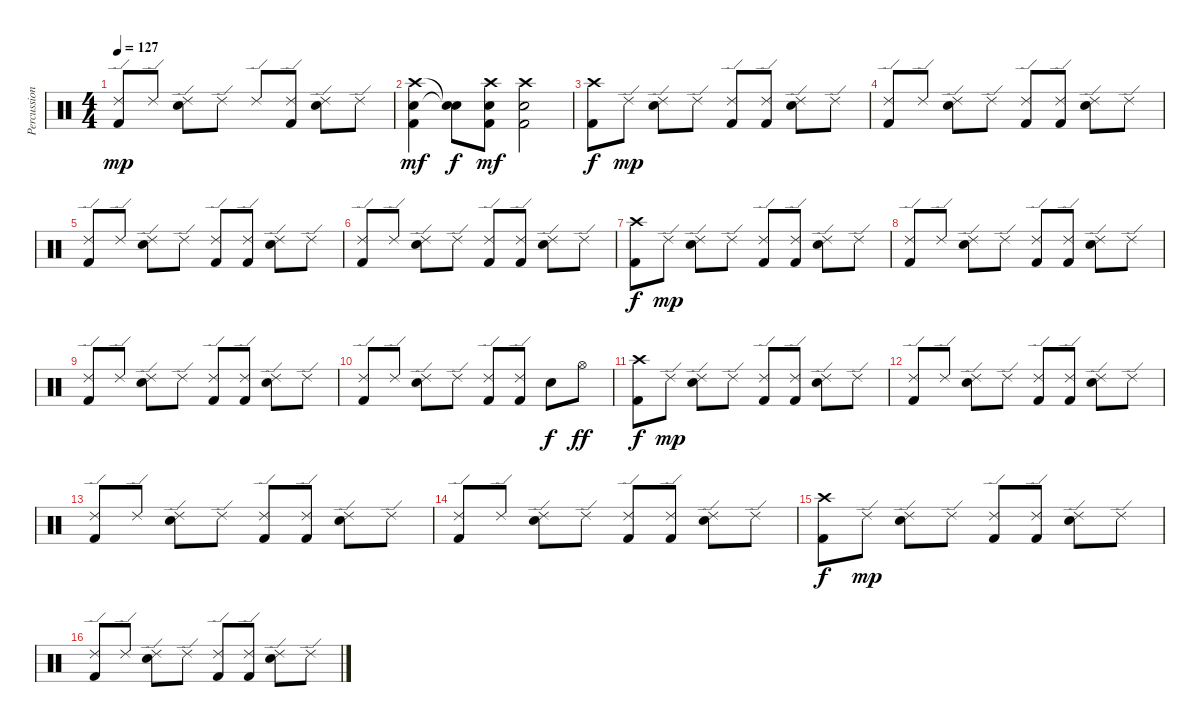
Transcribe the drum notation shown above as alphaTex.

\track ("Percussion" "Percussion") {instrument percussion}
\staff {score}
\articulation defaults
\ts (4 4)
\tempo 127
\clef neutral
\ks c
("Ride (edge) 2" "Kick (hit) 2").8{dy mp} "Ride (edge) 2".8 ("Ride (edge) 2" "Snare (hit) 2").8 "Ride (edge) 2".8 "Ride (edge) 2".8 ("Ride (edge) 2" "Kick (hit) 2").8 ("Ride (edge) 2" "Snare (hit) 2").8 "Ride (edge) 2".8 |
("Crash high (hit)" "Snare (hit) 2" "Kick (hit) 2").4{dy mf} ("Snare (hit)"{t} "Snare (hit)"{t}).8{dy f} ("Crash high (hit)" "Snare (hit) 2" "Kick (hit) 2").8{dy mf} ("Crash high (hit)" "Snare (hit) 2" "Kick (hit) 2").2 |
("Crash high (hit)" "Kick (hit) 2").8{dy f} "Ride (edge) 2".8{dy mp} ("Ride (edge) 2" "Snare (hit) 2").8 "Ride (edge) 2".8 ("Ride (edge) 2" "Kick (hit) 2").8 ("Ride (edge) 2" "Kick (hit) 2").8 ("Ride (edge) 2" "Snare (hit) 2").8 "Ride (edge) 2".8 |
("Ride (edge) 2" "Kick (hit) 2").8 "Ride (edge) 2".8 ("Ride (edge) 2" "Snare (hit) 2").8 "Ride (edge) 2".8 ("Ride (edge) 2" "Kick (hit) 2").8 ("Ride (edge) 2" "Kick (hit) 2").8 ("Ride (edge) 2" "Snare (hit) 2").8 "Ride (edge) 2".8 |
("Ride (edge) 2" "Kick (hit) 2").8 "Ride (edge) 2".8 ("Ride (edge) 2" "Snare (hit) 2").8 "Ride (edge) 2".8 ("Ride (edge) 2" "Kick (hit) 2").8 ("Ride (edge) 2" "Kick (hit) 2").8 ("Ride (edge) 2" "Snare (hit) 2").8 "Ride (edge) 2".8 |
("Ride (edge) 2" "Kick (hit) 2").8 "Ride (edge) 2".8 ("Ride (edge) 2" "Snare (hit) 2").8 "Ride (edge) 2".8 ("Ride (edge) 2" "Kick (hit) 2").8 ("Ride (edge) 2" "Kick (hit) 2").8 ("Ride (edge) 2" "Snare (hit) 2").8 "Ride (edge) 2".8 |
("Crash high (hit)" "Kick (hit) 2").8{dy f} "Ride (edge) 2".8{dy mp} ("Ride (edge) 2" "Snare (hit) 2").8 "Ride (edge) 2".8 ("Ride (edge) 2" "Kick (hit) 2").8 ("Ride (edge) 2" "Kick (hit) 2").8 ("Ride (edge) 2" "Snare (hit) 2").8 "Ride (edge) 2".8 |
("Ride (edge) 2" "Kick (hit) 2").8 "Ride (edge) 2".8 ("Ride (edge) 2" "Snare (hit) 2").8 "Ride (edge) 2".8 ("Ride (edge) 2" "Kick (hit) 2").8 ("Ride (edge) 2" "Kick (hit) 2").8 ("Ride (edge) 2" "Snare (hit) 2").8 "Ride (edge) 2".8 |
("Ride (edge) 2" "Kick (hit) 2").8 "Ride (edge) 2".8 ("Ride (edge) 2" "Snare (hit) 2").8 "Ride (edge) 2".8 ("Ride (edge) 2" "Kick (hit) 2").8 ("Ride (edge) 2" "Kick (hit) 2").8 ("Ride (edge) 2" "Snare (hit) 2").8 "Ride (edge) 2".8 |
("Ride (edge) 2" "Kick (hit) 2").8 "Ride (edge) 2".8 ("Ride (edge) 2" "Snare (hit) 2").8 "Ride (edge) 2".8 ("Ride (edge) 2" "Kick (hit) 2").8 ("Ride (edge) 2" "Kick (hit) 2").8 "Snare (hit) 2".8{dy f} "Hi-Hat (open)".8{dy ff} |
("Crash high (hit)" "Kick (hit) 2").8{dy f} "Ride (edge) 2".8{dy mp} ("Ride (edge) 2" "Snare (hit) 2").8 "Ride (edge) 2".8 ("Ride (edge) 2" "Kick (hit) 2").8 ("Ride (edge) 2" "Kick (hit) 2").8 ("Ride (edge) 2" "Snare (hit) 2").8 "Ride (edge) 2".8 |
("Ride (edge) 2" "Kick (hit) 2").8 "Ride (edge) 2".8 ("Ride (edge) 2" "Snare (hit) 2").8 "Ride (edge) 2".8 ("Ride (edge) 2" "Kick (hit) 2").8 ("Ride (edge) 2" "Kick (hit) 2").8 ("Ride (edge) 2" "Snare (hit) 2").8 "Ride (edge) 2".8 |
("Ride (edge) 2" "Kick (hit) 2").8 "Ride (edge) 2".8 ("Ride (edge) 2" "Snare (hit) 2").8 "Ride (edge) 2".8 ("Ride (edge) 2" "Kick (hit) 2").8 ("Ride (edge) 2" "Kick (hit) 2").8 ("Ride (edge) 2" "Snare (hit) 2").8 "Ride (edge) 2".8 |
("Ride (edge) 2" "Kick (hit) 2").8 "Ride (edge) 2".8 ("Ride (edge) 2" "Snare (hit) 2").8 "Ride (edge) 2".8 ("Ride (edge) 2" "Kick (hit) 2").8 ("Ride (edge) 2" "Kick (hit) 2").8 ("Ride (edge) 2" "Snare (hit) 2").8 "Ride (edge) 2".8 |
("Crash high (hit)" "Kick (hit) 2").8{dy f} "Ride (edge) 2".8{dy mp} ("Ride (edge) 2" "Snare (hit) 2").8 "Ride (edge) 2".8 ("Ride (edge) 2" "Kick (hit) 2").8 ("Ride (edge) 2" "Kick (hit) 2").8 ("Ride (edge) 2" "Snare (hit) 2").8 "Ride (edge) 2".8 |
("Ride (edge) 2" "Kick (hit) 2").8 "Ride (edge) 2".8 ("Ride (edge) 2" "Snare (hit) 2").8 "Ride (edge) 2".8 ("Ride (edge) 2" "Kick (hit) 2").8 ("Ride (edge) 2" "Kick (hit) 2").8 ("Ride (edge) 2" "Snare (hit) 2").8 "Ride (edge) 2".8
